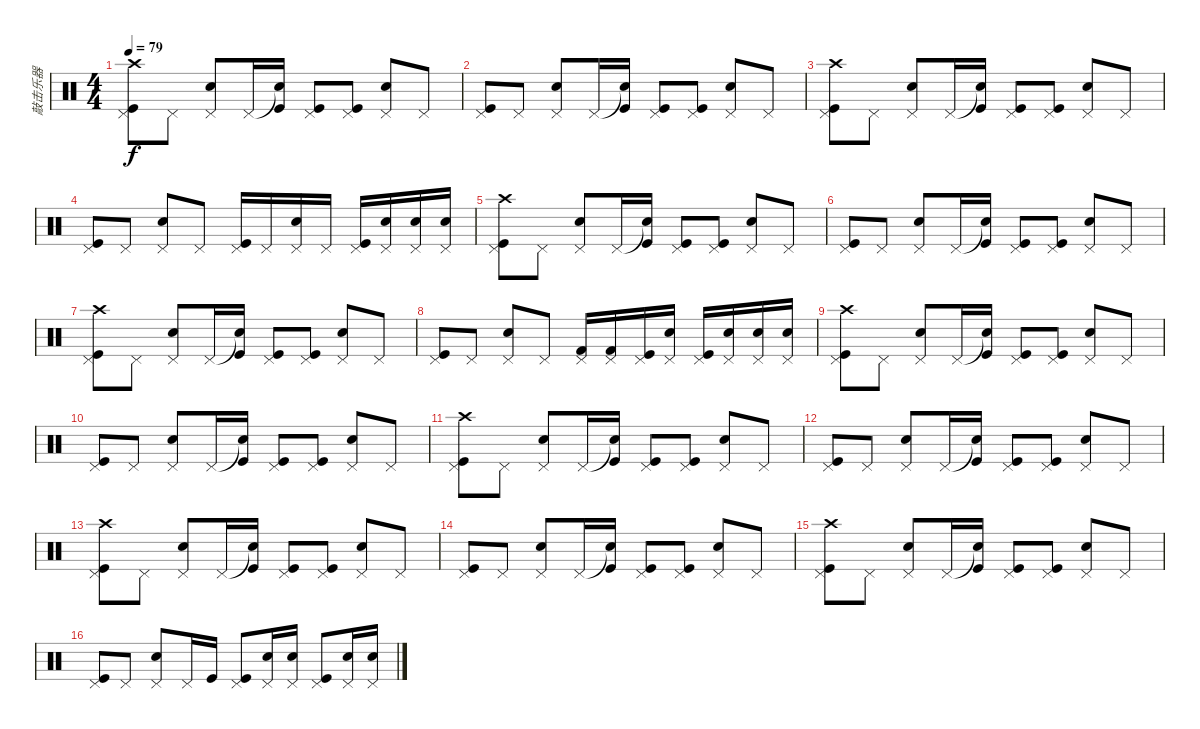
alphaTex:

\track ("敲击乐器" "敲击乐器") {instrument percussion}
\staff {score}
\articulation defaults
\ts (4 4)
\tempo 79
\clef neutral
\ks c
("Pedal Hi-Hat (hit)" "Kick (hit)" "Crash high (hit)").8{dy f} "Pedal Hi-Hat (hit)".8 ("Pedal Hi-Hat (hit)" "Electric Snare (hit)").8 "Pedal Hi-Hat (hit)".16 ("Snare (hit)"{t} "Kick (hit)").16 ("Pedal Hi-Hat (hit)" "Kick (hit)").8 ("Pedal Hi-Hat (hit)" "Kick (hit)").8 ("Pedal Hi-Hat (hit)" "Electric Snare (hit)").8 "Pedal Hi-Hat (hit)".8 |
("Pedal Hi-Hat (hit)" "Kick (hit)").8 "Pedal Hi-Hat (hit)".8 ("Pedal Hi-Hat (hit)" "Electric Snare (hit)").8 "Pedal Hi-Hat (hit)".16 ("Snare (hit)"{t} "Kick (hit)").16 ("Pedal Hi-Hat (hit)" "Kick (hit)").8 ("Pedal Hi-Hat (hit)" "Kick (hit)").8 ("Pedal Hi-Hat (hit)" "Electric Snare (hit)").8 "Pedal Hi-Hat (hit)".8 |
("Pedal Hi-Hat (hit)" "Kick (hit)" "Crash high (hit)").8 "Pedal Hi-Hat (hit)".8 ("Pedal Hi-Hat (hit)" "Electric Snare (hit)").8 "Pedal Hi-Hat (hit)".16 ("Snare (hit)"{t} "Kick (hit)").16 ("Pedal Hi-Hat (hit)" "Kick (hit)").8 ("Pedal Hi-Hat (hit)" "Kick (hit)").8 ("Pedal Hi-Hat (hit)" "Electric Snare (hit)").8 "Pedal Hi-Hat (hit)".8 |
("Pedal Hi-Hat (hit)" "Kick (hit)").8 "Pedal Hi-Hat (hit)".8 ("Pedal Hi-Hat (hit)" "Electric Snare (hit)").8 "Pedal Hi-Hat (hit)".8 ("Pedal Hi-Hat (hit)" "Kick (hit)").16 "Pedal Hi-Hat (hit)".16 ("Pedal Hi-Hat (hit)" "Electric Snare (hit)").16 "Pedal Hi-Hat (hit)".16 ("Pedal Hi-Hat (hit)" "Kick (hit)").16 ("Pedal Hi-Hat (hit)" "Electric Snare (hit)").16 ("Pedal Hi-Hat (hit)" "Snare (hit) 2").16 ("Pedal Hi-Hat (hit)" "Snare (hit) 2").16 |
("Pedal Hi-Hat (hit)" "Kick (hit)" "Crash high (hit)").8 "Pedal Hi-Hat (hit)".8 ("Pedal Hi-Hat (hit)" "Electric Snare (hit)").8 "Pedal Hi-Hat (hit)".16 ("Snare (hit)"{t} "Kick (hit)").16 ("Pedal Hi-Hat (hit)" "Kick (hit)").8 ("Pedal Hi-Hat (hit)" "Kick (hit)").8 ("Pedal Hi-Hat (hit)" "Electric Snare (hit)").8 "Pedal Hi-Hat (hit)".8 |
("Pedal Hi-Hat (hit)" "Kick (hit)").8 "Pedal Hi-Hat (hit)".8 ("Pedal Hi-Hat (hit)" "Electric Snare (hit)").8 "Pedal Hi-Hat (hit)".16 ("Snare (hit)"{t} "Kick (hit)").16 ("Pedal Hi-Hat (hit)" "Kick (hit)").8 ("Pedal Hi-Hat (hit)" "Kick (hit)").8 ("Pedal Hi-Hat (hit)" "Electric Snare (hit)").8 "Pedal Hi-Hat (hit)".8 |
("Pedal Hi-Hat (hit)" "Kick (hit)" "Crash high (hit)").8 "Pedal Hi-Hat (hit)".8 ("Pedal Hi-Hat (hit)" "Electric Snare (hit)").8 "Pedal Hi-Hat (hit)".16 ("Snare (hit)"{t} "Kick (hit)").16 ("Pedal Hi-Hat (hit)" "Kick (hit)").8 ("Pedal Hi-Hat (hit)" "Kick (hit)").8 ("Pedal Hi-Hat (hit)" "Electric Snare (hit)").8 "Pedal Hi-Hat (hit)".8 |
("Pedal Hi-Hat (hit)" "Kick (hit)").8 "Pedal Hi-Hat (hit)".8 ("Pedal Hi-Hat (hit)" "Electric Snare (hit)").8 "Pedal Hi-Hat (hit)".8 ("Pedal Hi-Hat (hit)" "Kick (hit) 2").16 ("Pedal Hi-Hat (hit)" "Kick (hit) 2").16 ("Pedal Hi-Hat (hit)" "Kick (hit)").16 ("Pedal Hi-Hat (hit)" "Electric Snare (hit)").16 ("Pedal Hi-Hat (hit)" "Kick (hit)").16 ("Pedal Hi-Hat (hit)" "Electric Snare (hit)").16 ("Pedal Hi-Hat (hit)" "Snare (hit) 2").16 ("Pedal Hi-Hat (hit)" "Snare (hit) 2").16 |
("Pedal Hi-Hat (hit)" "Kick (hit)" "Crash high (hit)").8 "Pedal Hi-Hat (hit)".8 ("Pedal Hi-Hat (hit)" "Electric Snare (hit)").8 "Pedal Hi-Hat (hit)".16 ("Snare (hit)"{t} "Kick (hit)").16 ("Pedal Hi-Hat (hit)" "Kick (hit)").8 ("Pedal Hi-Hat (hit)" "Kick (hit)").8 ("Pedal Hi-Hat (hit)" "Electric Snare (hit)").8 "Pedal Hi-Hat (hit)".8 |
("Pedal Hi-Hat (hit)" "Kick (hit)").8 "Pedal Hi-Hat (hit)".8 ("Pedal Hi-Hat (hit)" "Electric Snare (hit)").8 "Pedal Hi-Hat (hit)".16 ("Snare (hit)"{t} "Kick (hit)").16 ("Pedal Hi-Hat (hit)" "Kick (hit)").8 ("Pedal Hi-Hat (hit)" "Kick (hit)").8 ("Pedal Hi-Hat (hit)" "Electric Snare (hit)").8 "Pedal Hi-Hat (hit)".8 |
("Pedal Hi-Hat (hit)" "Kick (hit)" "Crash high (hit)").8 "Pedal Hi-Hat (hit)".8 ("Pedal Hi-Hat (hit)" "Electric Snare (hit)").8 "Pedal Hi-Hat (hit)".16 ("Snare (hit)"{t} "Kick (hit)").16 ("Pedal Hi-Hat (hit)" "Kick (hit)").8 ("Pedal Hi-Hat (hit)" "Kick (hit)").8 ("Pedal Hi-Hat (hit)" "Electric Snare (hit)").8 "Pedal Hi-Hat (hit)".8 |
("Pedal Hi-Hat (hit)" "Kick (hit)").8 "Pedal Hi-Hat (hit)".8 ("Pedal Hi-Hat (hit)" "Electric Snare (hit)").8 "Pedal Hi-Hat (hit)".16 ("Snare (hit)"{t} "Kick (hit)").16 ("Pedal Hi-Hat (hit)" "Kick (hit)").8 ("Pedal Hi-Hat (hit)" "Kick (hit)").8 ("Pedal Hi-Hat (hit)" "Electric Snare (hit)").8 "Pedal Hi-Hat (hit)".8 |
("Pedal Hi-Hat (hit)" "Kick (hit)" "Crash high (hit)").8 "Pedal Hi-Hat (hit)".8 ("Pedal Hi-Hat (hit)" "Electric Snare (hit)").8 "Pedal Hi-Hat (hit)".16 ("Snare (hit)"{t} "Kick (hit)").16 ("Pedal Hi-Hat (hit)" "Kick (hit)").8 ("Pedal Hi-Hat (hit)" "Kick (hit)").8 ("Pedal Hi-Hat (hit)" "Electric Snare (hit)").8 "Pedal Hi-Hat (hit)".8 |
("Pedal Hi-Hat (hit)" "Kick (hit)").8 "Pedal Hi-Hat (hit)".8 ("Pedal Hi-Hat (hit)" "Electric Snare (hit)").8 "Pedal Hi-Hat (hit)".16 ("Snare (hit)"{t} "Kick (hit)").16 ("Pedal Hi-Hat (hit)" "Kick (hit)").8 ("Pedal Hi-Hat (hit)" "Kick (hit)").8 ("Pedal Hi-Hat (hit)" "Electric Snare (hit)").8 "Pedal Hi-Hat (hit)".8 |
("Pedal Hi-Hat (hit)" "Kick (hit)" "Crash high (hit)").8 "Pedal Hi-Hat (hit)".8 ("Pedal Hi-Hat (hit)" "Electric Snare (hit)").8 "Pedal Hi-Hat (hit)".16 ("Snare (hit)"{t} "Kick (hit)").16 ("Pedal Hi-Hat (hit)" "Kick (hit)").8 ("Pedal Hi-Hat (hit)" "Kick (hit)").8 ("Pedal Hi-Hat (hit)" "Electric Snare (hit)").8 "Pedal Hi-Hat (hit)".8 |
("Pedal Hi-Hat (hit)" "Kick (hit)").8 "Pedal Hi-Hat (hit)".8 ("Pedal Hi-Hat (hit)" "Electric Snare (hit)").8 "Pedal Hi-Hat (hit)".16 "Kick (hit)".16 ("Pedal Hi-Hat (hit)" "Kick (hit)").8 ("Pedal Hi-Hat (hit)" "Electric Snare (hit)").16 ("Pedal Hi-Hat (hit)" "Snare (hit) 2").16 ("Pedal Hi-Hat (hit)" "Kick (hit)").8 ("Pedal Hi-Hat (hit)" "Electric Snare (hit)").16 ("Pedal Hi-Hat (hit)" "Snare (hit) 2").16
